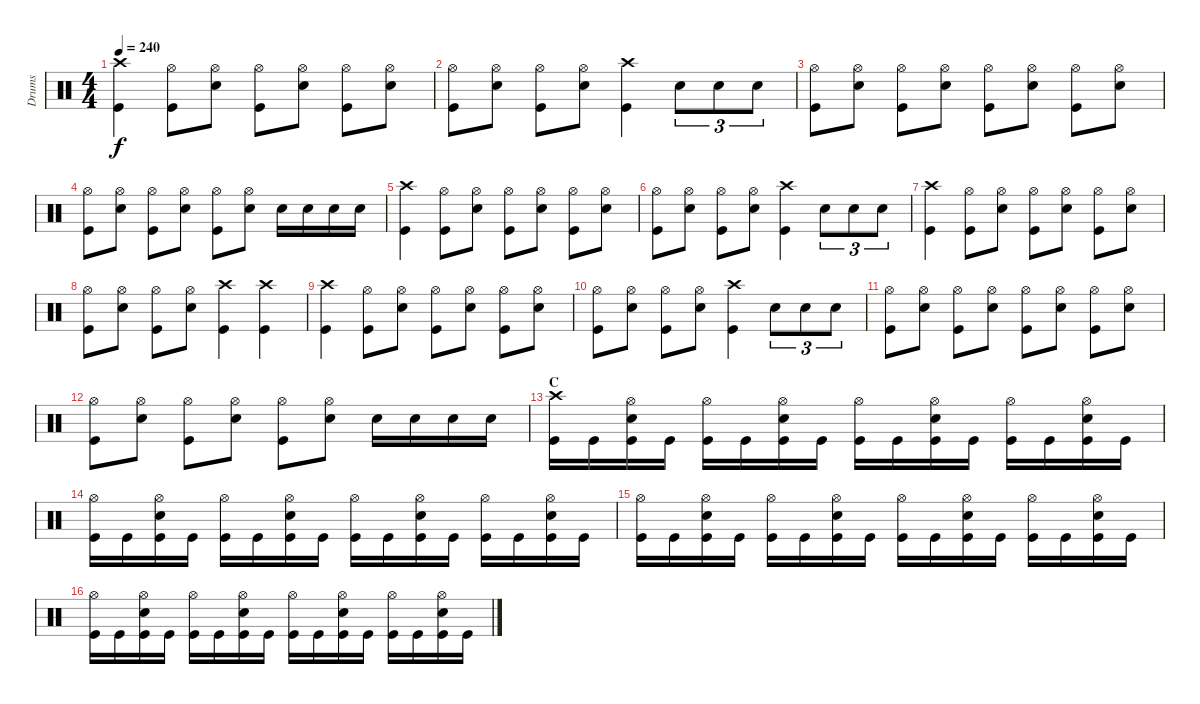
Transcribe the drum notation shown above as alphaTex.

\track ("Drums" "Drums") {instrument percussion}
\staff {score}
\articulation defaults
\ts (4 4)
\tempo 240
\clef neutral
\ks c
("Crash high (hit)" "Kick (hit)").4{dy f} ("Hi-Hat (open)" "Kick (hit)").8 ("Hi-Hat (open)" "Snare (hit) 2").8 ("Hi-Hat (open)" "Kick (hit)").8 ("Hi-Hat (open)" "Snare (hit) 2").8 ("Hi-Hat (open)" "Kick (hit)").8 ("Hi-Hat (open)" "Snare (hit) 2").8 |
("Hi-Hat (open)" "Kick (hit)").8 ("Hi-Hat (open)" "Snare (hit) 2").8 ("Hi-Hat (open)" "Kick (hit)").8 ("Hi-Hat (open)" "Snare (hit) 2").8 ("Crash high (hit)" "Kick (hit)").4 "Snare (hit) 2".8{tu (3 2)} "Snare (hit) 2".8{tu (3 2)} "Snare (hit) 2".8{tu (3 2)} |
("Hi-Hat (open)" "Kick (hit)").8 ("Hi-Hat (open)" "Snare (hit) 2").8 ("Hi-Hat (open)" "Kick (hit)").8 ("Hi-Hat (open)" "Snare (hit) 2").8 ("Hi-Hat (open)" "Kick (hit)").8 ("Hi-Hat (open)" "Snare (hit) 2").8 ("Hi-Hat (open)" "Kick (hit)").8 ("Hi-Hat (open)" "Snare (hit) 2").8 |
("Hi-Hat (open)" "Kick (hit)").8 ("Hi-Hat (open)" "Snare (hit) 2").8 ("Hi-Hat (open)" "Kick (hit)").8 ("Hi-Hat (open)" "Snare (hit) 2").8 ("Hi-Hat (open)" "Kick (hit)").8 ("Hi-Hat (open)" "Snare (hit) 2").8 "Snare (hit) 2".16 "Snare (hit) 2".16 "Snare (hit) 2".16 "Snare (hit) 2".16 |
("Crash high (hit)" "Kick (hit)").4 ("Hi-Hat (open)" "Kick (hit)").8 ("Hi-Hat (open)" "Snare (hit) 2").8 ("Hi-Hat (open)" "Kick (hit)").8 ("Hi-Hat (open)" "Snare (hit) 2").8 ("Hi-Hat (open)" "Kick (hit)").8 ("Hi-Hat (open)" "Snare (hit) 2").8 |
("Hi-Hat (open)" "Kick (hit)").8 ("Hi-Hat (open)" "Snare (hit) 2").8 ("Hi-Hat (open)" "Kick (hit)").8 ("Hi-Hat (open)" "Snare (hit) 2").8 ("Crash high (hit)" "Kick (hit)").4 "Snare (hit) 2".8{tu (3 2)} "Snare (hit) 2".8{tu (3 2)} "Snare (hit) 2".8{tu (3 2)} |
("Crash high (hit)" "Kick (hit)").4 ("Hi-Hat (open)" "Kick (hit)").8 ("Hi-Hat (open)" "Snare (hit) 2").8 ("Hi-Hat (open)" "Kick (hit)").8 ("Hi-Hat (open)" "Snare (hit) 2").8 ("Hi-Hat (open)" "Kick (hit)").8 ("Hi-Hat (open)" "Snare (hit) 2").8 |
("Hi-Hat (open)" "Kick (hit)").8 ("Hi-Hat (open)" "Snare (hit) 2").8 ("Hi-Hat (open)" "Kick (hit)").8 ("Hi-Hat (open)" "Snare (hit) 2").8 ("Crash high (hit)" "Kick (hit)").4 ("Crash high (hit)" "Kick (hit)").4 |
("Crash high (hit)" "Kick (hit)").4 ("Hi-Hat (open)" "Kick (hit)").8 ("Hi-Hat (open)" "Snare (hit) 2").8 ("Hi-Hat (open)" "Kick (hit)").8 ("Hi-Hat (open)" "Snare (hit) 2").8 ("Hi-Hat (open)" "Kick (hit)").8 ("Hi-Hat (open)" "Snare (hit) 2").8 |
("Hi-Hat (open)" "Kick (hit)").8 ("Hi-Hat (open)" "Snare (hit) 2").8 ("Hi-Hat (open)" "Kick (hit)").8 ("Hi-Hat (open)" "Snare (hit) 2").8 ("Crash high (hit)" "Kick (hit)").4 "Snare (hit) 2".8{tu (3 2)} "Snare (hit) 2".8{tu (3 2)} "Snare (hit) 2".8{tu (3 2)} |
("Hi-Hat (open)" "Kick (hit)").8 ("Hi-Hat (open)" "Snare (hit) 2").8 ("Hi-Hat (open)" "Kick (hit)").8 ("Hi-Hat (open)" "Snare (hit) 2").8 ("Hi-Hat (open)" "Kick (hit)").8 ("Hi-Hat (open)" "Snare (hit) 2").8 ("Hi-Hat (open)" "Kick (hit)").8 ("Hi-Hat (open)" "Snare (hit) 2").8 |
("Hi-Hat (open)" "Kick (hit)").8 ("Hi-Hat (open)" "Snare (hit) 2").8 ("Hi-Hat (open)" "Kick (hit)").8 ("Hi-Hat (open)" "Snare (hit) 2").8 ("Hi-Hat (open)" "Kick (hit)").8 ("Hi-Hat (open)" "Snare (hit) 2").8 "Snare (hit) 2".16 "Snare (hit) 2".16 "Snare (hit) 2".16 "Snare (hit) 2".16 |
\section ("" "C")
("Crash high (hit)" "Kick (hit)").16 "Kick (hit)".16 ("Hi-Hat (open)" "Snare (hit) 2" "Kick (hit)").16 "Kick (hit)".16 ("Hi-Hat (open)" "Kick (hit)").16 "Kick (hit)".16 ("Hi-Hat (open)" "Snare (hit) 2" "Kick (hit)").16 "Kick (hit)".16 ("Hi-Hat (open)" "Kick (hit)").16 "Kick (hit)".16 ("Hi-Hat (open)" "Snare (hit) 2" "Kick (hit)").16 "Kick (hit)".16 ("Hi-Hat (open)" "Kick (hit)").16 "Kick (hit)".16 ("Hi-Hat (open)" "Snare (hit) 2" "Kick (hit)").16 "Kick (hit)".16 |
("Hi-Hat (open)" "Kick (hit)").16 "Kick (hit)".16 ("Hi-Hat (open)" "Snare (hit) 2" "Kick (hit)").16 "Kick (hit)".16 ("Hi-Hat (open)" "Kick (hit)").16 "Kick (hit)".16 ("Hi-Hat (open)" "Snare (hit) 2" "Kick (hit)").16 "Kick (hit)".16 ("Hi-Hat (open)" "Kick (hit)").16 "Kick (hit)".16 ("Hi-Hat (open)" "Snare (hit) 2" "Kick (hit)").16 "Kick (hit)".16 ("Hi-Hat (open)" "Kick (hit)").16 "Kick (hit)".16 ("Hi-Hat (open)" "Snare (hit) 2" "Kick (hit)").16 "Kick (hit)".16 |
("Hi-Hat (open)" "Kick (hit)").16 "Kick (hit)".16 ("Hi-Hat (open)" "Snare (hit) 2" "Kick (hit)").16 "Kick (hit)".16 ("Hi-Hat (open)" "Kick (hit)").16 "Kick (hit)".16 ("Hi-Hat (open)" "Snare (hit) 2" "Kick (hit)").16 "Kick (hit)".16 ("Hi-Hat (open)" "Kick (hit)").16 "Kick (hit)".16 ("Hi-Hat (open)" "Snare (hit) 2" "Kick (hit)").16 "Kick (hit)".16 ("Hi-Hat (open)" "Kick (hit)").16 "Kick (hit)".16 ("Hi-Hat (open)" "Snare (hit) 2" "Kick (hit)").16 "Kick (hit)".16 |
("Hi-Hat (open)" "Kick (hit)").16 "Kick (hit)".16 ("Hi-Hat (open)" "Snare (hit) 2" "Kick (hit)").16 "Kick (hit)".16 ("Hi-Hat (open)" "Kick (hit)").16 "Kick (hit)".16 ("Hi-Hat (open)" "Snare (hit) 2" "Kick (hit)").16 "Kick (hit)".16 ("Hi-Hat (open)" "Kick (hit)").16 "Kick (hit)".16 ("Hi-Hat (open)" "Snare (hit) 2" "Kick (hit)").16 "Kick (hit)".16 ("Hi-Hat (open)" "Kick (hit)").16 "Kick (hit)".16 ("Hi-Hat (open)" "Snare (hit) 2" "Kick (hit)").16 "Kick (hit)".16
